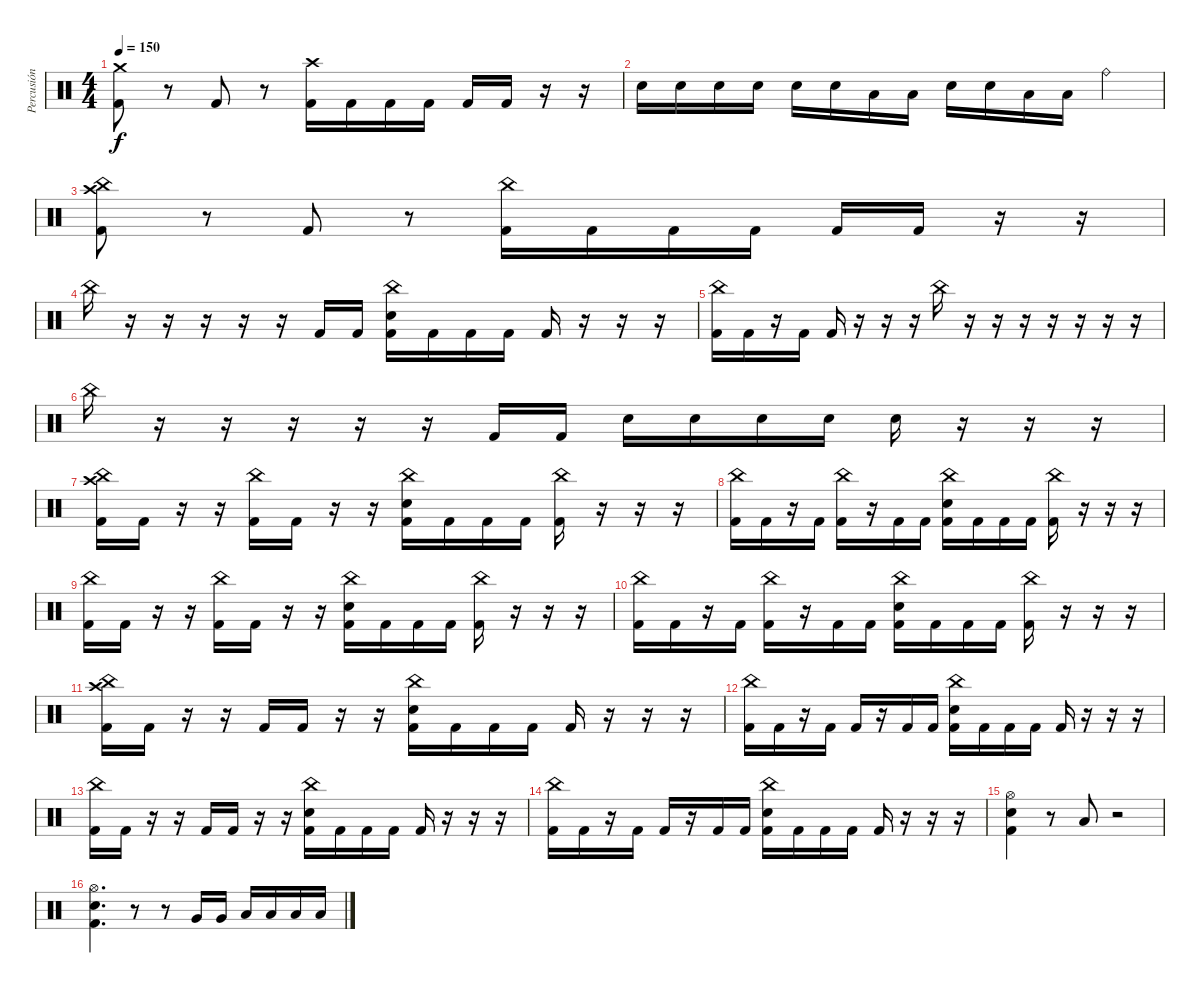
\track ("Percusión" "Percusión") {instrument percussion}
\staff {score}
\articulation defaults
\ts (4 4)
\tempo 150
\clef neutral
\ks c
("Kick (hit) 2" "Crash medium (hit)").8{dy f} r.8 "Kick (hit) 2".8 r.8 ("Kick (hit) 2" "Crash high (hit)").16 "Kick (hit) 2".16 "Kick (hit) 2".16 "Kick (hit) 2".16 "Kick (hit) 2".16 "Kick (hit) 2".16 r.16 r.16 |
"Electric Snare (hit)".16 "Electric Snare (hit)".16 "Electric Snare (hit)".16 "Electric Snare (hit)".16 "Electric Snare (hit)".16 "Electric Snare (hit)".16 "Low Tom (hit)".16 "Low Tom (hit)".16 "Electric Snare (hit)".16 "Electric Snare (hit)".16 "Low Tom (hit)".16 "Low Tom (hit)".16 "Ride (bell)".4 |
("Kick (hit) 2" "China (hit)" "Crash high (hit)").8 r.8 "Kick (hit) 2".8 r.8 ("Kick (hit) 2" "China (hit)").16 "Kick (hit) 2".16 "Kick (hit) 2".16 "Kick (hit) 2".16 "Kick (hit) 2".16 "Kick (hit) 2".16 r.16 r.16 |
"China (hit)".16 r.16 r.16 r.16 r.16 r.16 "Kick (hit) 2".16 "Kick (hit) 2".16 ("Kick (hit) 2" "Electric Snare (hit)" "China (hit)").16 "Kick (hit) 2".16 "Kick (hit) 2".16 "Kick (hit) 2".16 "Kick (hit) 2".16 r.16 r.16 r.16 |
("Kick (hit) 2" "China (hit)").16 "Kick (hit) 2".16 r.16 "Kick (hit) 2".16 "Kick (hit) 2".16 r.16 r.16 r.16 "China (hit)".16 r.16 r.16 r.16 r.16 r.16 r.16 r.16 |
"China (hit)".16 r.16 r.16 r.16 r.16 r.16 "Kick (hit) 2".16 "Kick (hit) 2".16 "Electric Snare (hit)".16 "Electric Snare (hit)".16 "Electric Snare (hit)".16 "Electric Snare (hit)".16 "Electric Snare (hit)".16 r.16 r.16 r.16 |
("Kick (hit) 2" "Crash high (hit)" "China (hit)").16 "Kick (hit) 2".16 r.16 r.16 ("Kick (hit) 2" "China (hit)").16 "Kick (hit) 2".16 r.16 r.16 ("Electric Snare (hit)" "Kick (hit) 2" "China (hit)").16 "Kick (hit) 2".16 "Kick (hit) 2".16 "Kick (hit) 2".16 ("Kick (hit) 2" "China (hit)").16 r.16 r.16 r.16 |
("Kick (hit) 2" "China (hit)").16 "Kick (hit) 2".16 r.16 "Kick (hit) 2".16 ("Kick (hit) 2" "China (hit)").16 r.16 "Kick (hit) 2".16 "Kick (hit) 2".16 ("Electric Snare (hit)" "Kick (hit) 2" "China (hit)").16 "Kick (hit) 2".16 "Kick (hit) 2".16 "Kick (hit) 2".16 ("Kick (hit) 2" "China (hit)").16 r.16 r.16 r.16 |
("Kick (hit) 2" "China (hit)").16 "Kick (hit) 2".16 r.16 r.16 ("Kick (hit) 2" "China (hit)").16 "Kick (hit) 2".16 r.16 r.16 ("Electric Snare (hit)" "Kick (hit) 2" "China (hit)").16 "Kick (hit) 2".16 "Kick (hit) 2".16 "Kick (hit) 2".16 ("Kick (hit) 2" "China (hit)").16 r.16 r.16 r.16 |
("Kick (hit) 2" "China (hit)").16 "Kick (hit) 2".16 r.16 "Kick (hit) 2".16 ("Kick (hit) 2" "China (hit)").16 r.16 "Kick (hit) 2".16 "Kick (hit) 2".16 ("Electric Snare (hit)" "Kick (hit) 2" "China (hit)").16 "Kick (hit) 2".16 "Kick (hit) 2".16 "Kick (hit) 2".16 ("Kick (hit) 2" "China (hit)").16 r.16 r.16 r.16 |
("Kick (hit) 2" "Crash high (hit)" "China (hit)").16 "Kick (hit) 2".16 r.16 r.16 "Kick (hit) 2".16 "Kick (hit) 2".16 r.16 r.16 ("Electric Snare (hit)" "Kick (hit) 2" "China (hit)").16 "Kick (hit) 2".16 "Kick (hit) 2".16 "Kick (hit) 2".16 "Kick (hit) 2".16 r.16 r.16 r.16 |
("Kick (hit) 2" "China (hit)").16 "Kick (hit) 2".16 r.16 "Kick (hit) 2".16 "Kick (hit) 2".16 r.16 "Kick (hit) 2".16 "Kick (hit) 2".16 ("Electric Snare (hit)" "Kick (hit) 2" "China (hit)").16 "Kick (hit) 2".16 "Kick (hit) 2".16 "Kick (hit) 2".16 "Kick (hit) 2".16 r.16 r.16 r.16 |
("Kick (hit) 2" "China (hit)").16 "Kick (hit) 2".16 r.16 r.16 "Kick (hit) 2".16 "Kick (hit) 2".16 r.16 r.16 ("Electric Snare (hit)" "Kick (hit) 2" "China (hit)").16 "Kick (hit) 2".16 "Kick (hit) 2".16 "Kick (hit) 2".16 "Kick (hit) 2".16 r.16 r.16 r.16 |
("Kick (hit) 2" "China (hit)").16 "Kick (hit) 2".16 r.16 "Kick (hit) 2".16 "Kick (hit) 2".16 r.16 "Kick (hit) 2".16 "Kick (hit) 2".16 ("Electric Snare (hit)" "Kick (hit) 2" "China (hit)").16 "Kick (hit) 2".16 "Kick (hit) 2".16 "Kick (hit) 2".16 "Kick (hit) 2".16 r.16 r.16 r.16 |
("Electric Snare (hit)" "Kick (hit) 2" "Hi-Hat (open)").4 r.8 "Low Tom (hit)".8 r.2 |
("Electric Snare (hit)" "Kick (hit) 2" "Hi-Hat (open)").4{d} r.8 r.8 "Very Low Tom (hit)".16 "Very Low Tom (hit)".16 "Low Floor Tom (hit)".16 "Low Floor Tom (hit)".16 "Low Floor Tom (hit)".16 "Low Floor Tom (hit)".16
